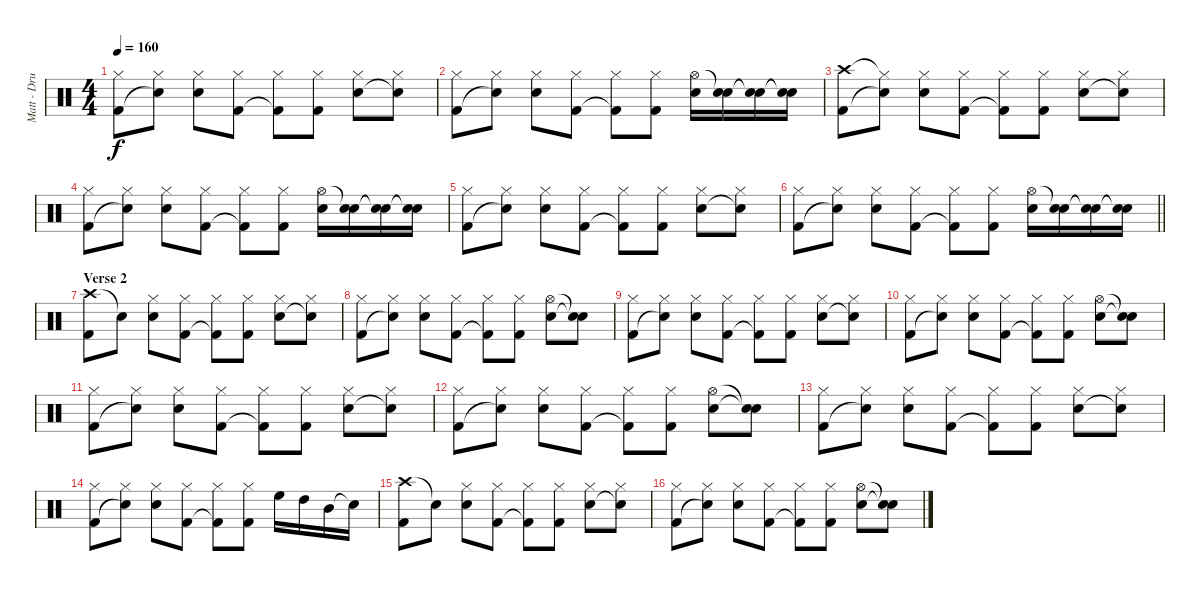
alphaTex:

\track ("Matt - Drums" "Matt - Dru") {instrument percussion}
\staff {score}
\articulation defaults
\ts (4 4)
\tempo 160
\clef neutral
\ks c
("Hi-Hat (closed)" "Kick (hit) 2").8{dy f} ("Hi-Hat (closed)" "Snare (hit)"{t}).8 ("Hi-Hat (closed)" "Snare (hit) 2").8 ("Hi-Hat (closed)" "Kick (hit) 2").8 ("Hi-Hat (closed)" "Kick (hit) 2"{t}).8 ("Hi-Hat (closed)" "Kick (hit) 2").8 ("Hi-Hat (closed)" "Snare (hit) 2").8 ("Hi-Hat (closed)" "Snare (hit) 2"{t}).8 |
("Hi-Hat (closed)" "Kick (hit) 2").8 ("Hi-Hat (closed)" "Snare (hit)"{t}).8 ("Hi-Hat (closed)" "Snare (hit) 2").8 ("Hi-Hat (closed)" "Kick (hit) 2").8 ("Hi-Hat (closed)" "Kick (hit) 2"{t}).8 ("Hi-Hat (closed)" "Kick (hit) 2").8 ("Hi-Hat (open)" "Snare (hit) 2").16 ("Snare (hit)"{t} "Snare (hit) 2").16 ("Snare (hit)"{t} "Snare (hit) 2"{t}).16 ("Snare (hit)"{t} "Snare (hit) 2"{t}).16 |
("Crash high (hit)" "Kick (hit) 2").8 ("Hi-Hat (closed)"{t} "Snare (hit)"{t}).8 ("Hi-Hat (closed)" "Snare (hit) 2").8 ("Hi-Hat (closed)" "Kick (hit) 2").8 ("Hi-Hat (closed)" "Kick (hit) 2"{t}).8 ("Hi-Hat (closed)" "Kick (hit) 2").8 ("Hi-Hat (closed)" "Snare (hit) 2").8 ("Hi-Hat (closed)" "Snare (hit)"{t}).8 |
("Hi-Hat (closed)" "Kick (hit) 2").8 ("Hi-Hat (closed)" "Snare (hit)"{t}).8 ("Hi-Hat (closed)" "Snare (hit) 2").8 ("Hi-Hat (closed)" "Kick (hit) 2").8 ("Hi-Hat (closed)" "Kick (hit) 2"{t}).8 ("Hi-Hat (closed)" "Kick (hit) 2").8 ("Hi-Hat (open)" "Snare (hit) 2").16 ("Snare (hit)"{t} "Snare (hit) 2").16 ("Snare (hit)"{t} "Snare (hit) 2"{t}).16 ("Snare (hit)"{t} "Snare (hit) 2"{t}).16 |
("Hi-Hat (closed)" "Kick (hit) 2").8 ("Hi-Hat (closed)" "Snare (hit)"{t}).8 ("Hi-Hat (closed)" "Snare (hit) 2").8 ("Hi-Hat (closed)" "Kick (hit) 2").8 ("Hi-Hat (closed)" "Kick (hit) 2"{t}).8 ("Hi-Hat (closed)" "Kick (hit) 2").8 ("Hi-Hat (closed)" "Snare (hit) 2").8 ("Hi-Hat (closed)" "Snare (hit)"{t}).8 |
\barLineRight lightlight
("Hi-Hat (closed)" "Kick (hit) 2").8 ("Hi-Hat (closed)" "Snare (hit)"{t}).8 ("Hi-Hat (closed)" "Snare (hit) 2").8 ("Hi-Hat (closed)" "Kick (hit) 2").8 ("Hi-Hat (closed)" "Kick (hit) 2"{t}).8 ("Hi-Hat (closed)" "Kick (hit) 2").8 ("Hi-Hat (open)" "Snare (hit) 2").16 ("Snare (hit)"{t} "Snare (hit) 2").16 ("Snare (hit)"{t} "Snare (hit) 2"{t}).16 ("Snare (hit)"{t} "Snare (hit) 2"{t}).16 |
\section ("" "Verse 2")
("Crash high (hit)" "Kick (hit) 2").8 "Snare (hit)"{t}.8 ("Hi-Hat (closed)" "Snare (hit) 2").8 ("Hi-Hat (closed)" "Kick (hit) 2").8 ("Hi-Hat (closed)" "Kick (hit) 2"{t}).8 ("Hi-Hat (closed)" "Kick (hit) 2").8 ("Hi-Hat (closed)" "Snare (hit) 2").8 ("Hi-Hat (closed)" "Snare (hit)"{t}).8 |
("Hi-Hat (closed)" "Kick (hit) 2").8 ("Hi-Hat (closed)" "Snare (hit)"{t}).8 ("Hi-Hat (closed)" "Snare (hit) 2").8 ("Hi-Hat (closed)" "Kick (hit) 2").8 ("Hi-Hat (closed)" "Kick (hit) 2"{t}).8 ("Hi-Hat (closed)" "Kick (hit) 2").8 ("Hi-Hat (open)" "Snare (hit) 2").8 ("Snare (hit)"{t} "Snare (hit)"{t}).8 |
("Hi-Hat (closed)" "Kick (hit) 2").8 ("Hi-Hat (closed)" "Snare (hit)"{t}).8 ("Hi-Hat (closed)" "Snare (hit) 2").8 ("Hi-Hat (closed)" "Kick (hit) 2").8 ("Hi-Hat (closed)" "Kick (hit) 2"{t}).8 ("Hi-Hat (closed)" "Kick (hit) 2").8 ("Hi-Hat (closed)" "Snare (hit) 2").8 ("Hi-Hat (closed)" "Snare (hit)"{t}).8 |
("Hi-Hat (closed)" "Kick (hit) 2").8 ("Hi-Hat (closed)" "Snare (hit)"{t}).8 ("Hi-Hat (closed)" "Snare (hit) 2").8 ("Hi-Hat (closed)" "Kick (hit) 2").8 ("Hi-Hat (closed)" "Kick (hit) 2"{t}).8 ("Hi-Hat (closed)" "Kick (hit) 2").8 ("Hi-Hat (open)" "Snare (hit) 2").8 ("Snare (hit)"{t} "Snare (hit)"{t}).8 |
("Hi-Hat (closed)" "Kick (hit) 2").8 ("Hi-Hat (closed)" "Snare (hit)"{t}).8 ("Hi-Hat (closed)" "Snare (hit) 2").8 ("Hi-Hat (closed)" "Kick (hit) 2").8 ("Hi-Hat (closed)" "Kick (hit) 2"{t}).8 ("Hi-Hat (closed)" "Kick (hit) 2").8 ("Hi-Hat (closed)" "Snare (hit) 2").8 ("Hi-Hat (closed)" "Snare (hit)"{t}).8 |
("Hi-Hat (closed)" "Kick (hit) 2").8 ("Hi-Hat (closed)" "Snare (hit)"{t}).8 ("Hi-Hat (closed)" "Snare (hit) 2").8 ("Hi-Hat (closed)" "Kick (hit) 2").8 ("Hi-Hat (closed)" "Kick (hit) 2"{t}).8 ("Hi-Hat (closed)" "Kick (hit) 2").8 ("Hi-Hat (open)" "Snare (hit) 2").8 ("Snare (hit)"{t} "Snare (hit)"{t}).8 |
("Hi-Hat (closed)" "Kick (hit) 2").8 ("Hi-Hat (closed)" "Snare (hit)"{t}).8 ("Hi-Hat (closed)" "Snare (hit) 2").8 ("Hi-Hat (closed)" "Kick (hit) 2").8 ("Hi-Hat (closed)" "Kick (hit) 2"{t}).8 ("Hi-Hat (closed)" "Kick (hit) 2").8 ("Hi-Hat (closed)" "Snare (hit) 2").8 ("Hi-Hat (closed)" "Snare (hit)"{t}).8 |
("Hi-Hat (closed)" "Kick (hit) 2").8 ("Hi-Hat (closed)" "Snare (hit)"{t}).8 ("Hi-Hat (closed)" "Snare (hit) 2").8 ("Hi-Hat (closed)" "Kick (hit) 2").8 ("Hi-Hat (closed)" "Kick (hit) 2"{t}).8 ("Hi-Hat (closed)" "Kick (hit) 2").8 "High Floor Tom (hit)".16 "High Tom (hit)".16 "Mid Tom (hit)".16 "Snare (hit)"{t}.16 |
("Crash high (hit)" "Kick (hit) 2").8 "Snare (hit)"{t}.8 ("Hi-Hat (closed)" "Snare (hit) 2").8 ("Hi-Hat (closed)" "Kick (hit) 2").8 ("Hi-Hat (closed)" "Kick (hit) 2"{t}).8 ("Hi-Hat (closed)" "Kick (hit) 2").8 ("Hi-Hat (closed)" "Snare (hit) 2").8 ("Hi-Hat (closed)" "Snare (hit)"{t}).8 |
("Hi-Hat (closed)" "Kick (hit) 2").8 ("Hi-Hat (closed)" "Snare (hit)"{t}).8 ("Hi-Hat (closed)" "Snare (hit) 2").8 ("Hi-Hat (closed)" "Kick (hit) 2").8 ("Hi-Hat (closed)" "Kick (hit) 2"{t}).8 ("Hi-Hat (closed)" "Kick (hit) 2").8 ("Hi-Hat (open)" "Snare (hit) 2").8 ("Snare (hit)"{t} "Snare (hit)"{t}).8
